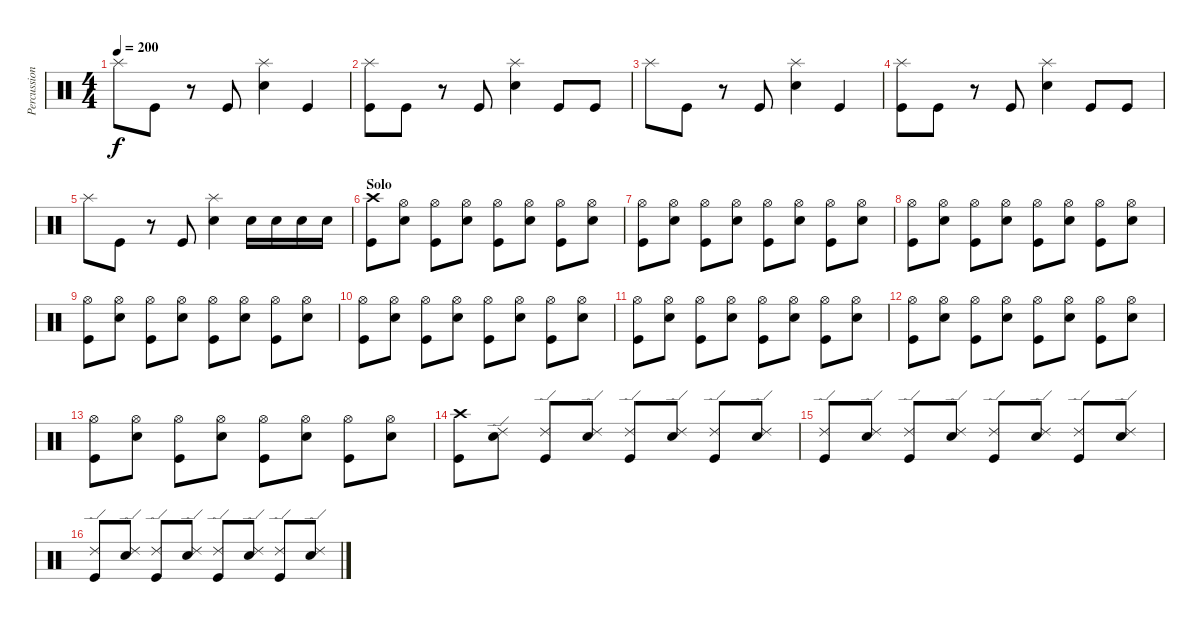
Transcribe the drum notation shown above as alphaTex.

\track ("Percussion" "Percussion") {instrument percussion}
\staff {score}
\articulation defaults
\ts (4 4)
\tempo 200
\clef neutral
\ks c "Splash (hit)".8{dy f} "Kick (hit)".8
r.8 "Kick (hit)".8 ("Splash (hit)" "Electric Snare (hit)").4 "Kick (hit)".4 |
("Splash (hit)" "Kick (hit)").8 "Kick (hit)".8 r.8 "Kick (hit)".8 ("Splash (hit)" "Electric Snare (hit)").4 "Kick (hit)".8 "Kick (hit)".8 |
"Splash (hit)".8 "Kick (hit)".8 r.8 "Kick (hit)".8 ("Splash (hit)" "Electric Snare (hit)").4 "Kick (hit)".4 |
("Splash (hit)" "Kick (hit)").8 "Kick (hit)".8 r.8 "Kick (hit)".8 ("Splash (hit)" "Electric Snare (hit)").4 "Kick (hit)".8 "Kick (hit)".8 |
"Splash (hit)".8 "Kick (hit)".8 r.8 "Kick (hit)".8 ("Splash (hit)" "Electric Snare (hit)").4 "Electric Snare (hit)".16 "Electric Snare (hit)".16 "Electric Snare (hit)".16 "Electric Snare (hit)".16 |
\section ("" "Solo")
("Crash high (hit)" "Kick (hit)").8 ("Hi-Hat (open)" "Electric Snare (hit)").8 ("Hi-Hat (open)" "Kick (hit)").8 ("Hi-Hat (open)" "Electric Snare (hit)").8 ("Hi-Hat (open)" "Kick (hit)").8 ("Hi-Hat (open)" "Electric Snare (hit)").8 ("Hi-Hat (open)" "Kick (hit)").8 ("Hi-Hat (open)" "Electric Snare (hit)").8 |
("Hi-Hat (open)" "Kick (hit)").8 ("Hi-Hat (open)" "Electric Snare (hit)").8 ("Hi-Hat (open)" "Kick (hit)").8 ("Hi-Hat (open)" "Electric Snare (hit)").8 ("Hi-Hat (open)" "Kick (hit)").8 ("Hi-Hat (open)" "Electric Snare (hit)").8 ("Hi-Hat (open)" "Kick (hit)").8 ("Hi-Hat (open)" "Electric Snare (hit)").8 |
("Hi-Hat (open)" "Kick (hit)").8 ("Hi-Hat (open)" "Electric Snare (hit)").8 ("Hi-Hat (open)" "Kick (hit)").8 ("Hi-Hat (open)" "Electric Snare (hit)").8 ("Hi-Hat (open)" "Kick (hit)").8 ("Hi-Hat (open)" "Electric Snare (hit)").8 ("Hi-Hat (open)" "Kick (hit)").8 ("Hi-Hat (open)" "Electric Snare (hit)").8 |
("Hi-Hat (open)" "Kick (hit)").8 ("Hi-Hat (open)" "Electric Snare (hit)").8 ("Hi-Hat (open)" "Kick (hit)").8 ("Hi-Hat (open)" "Electric Snare (hit)").8 ("Hi-Hat (open)" "Kick (hit)").8 ("Hi-Hat (open)" "Electric Snare (hit)").8 ("Hi-Hat (open)" "Kick (hit)").8 ("Hi-Hat (open)" "Electric Snare (hit)").8 |
("Hi-Hat (open)" "Kick (hit)").8 ("Hi-Hat (open)" "Electric Snare (hit)").8 ("Hi-Hat (open)" "Kick (hit)").8 ("Hi-Hat (open)" "Electric Snare (hit)").8 ("Hi-Hat (open)" "Kick (hit)").8 ("Hi-Hat (open)" "Electric Snare (hit)").8 ("Hi-Hat (open)" "Kick (hit)").8 ("Hi-Hat (open)" "Electric Snare (hit)").8 |
("Hi-Hat (open)" "Kick (hit)").8 ("Hi-Hat (open)" "Electric Snare (hit)").8 ("Hi-Hat (open)" "Kick (hit)").8 ("Hi-Hat (open)" "Electric Snare (hit)").8 ("Hi-Hat (open)" "Kick (hit)").8 ("Hi-Hat (open)" "Electric Snare (hit)").8 ("Hi-Hat (open)" "Kick (hit)").8 ("Hi-Hat (open)" "Electric Snare (hit)").8 |
("Hi-Hat (open)" "Kick (hit)").8 ("Hi-Hat (open)" "Electric Snare (hit)").8 ("Hi-Hat (open)" "Kick (hit)").8 ("Hi-Hat (open)" "Electric Snare (hit)").8 ("Hi-Hat (open)" "Kick (hit)").8 ("Hi-Hat (open)" "Electric Snare (hit)").8 ("Hi-Hat (open)" "Kick (hit)").8 ("Hi-Hat (open)" "Electric Snare (hit)").8 |
("Hi-Hat (open)" "Kick (hit)").8 ("Hi-Hat (open)" "Electric Snare (hit)").8 ("Hi-Hat (open)" "Kick (hit)").8 ("Hi-Hat (open)" "Electric Snare (hit)").8 ("Hi-Hat (open)" "Kick (hit)").8 ("Hi-Hat (open)" "Electric Snare (hit)").8 ("Hi-Hat (open)" "Kick (hit)").8 ("Hi-Hat (open)" "Electric Snare (hit)").8 |
("Crash high (hit)" "Kick (hit)").8 ("Ride (edge) 2" "Electric Snare (hit)").8 ("Ride (edge) 2" "Kick (hit)").8 ("Ride (edge) 2" "Electric Snare (hit)").8 ("Ride (edge) 2" "Kick (hit)").8 ("Ride (edge) 2" "Electric Snare (hit)").8 ("Ride (edge) 2" "Kick (hit)").8 ("Ride (edge) 2" "Electric Snare (hit)").8 |
("Ride (edge) 2" "Kick (hit)").8 ("Ride (edge) 2" "Electric Snare (hit)").8 ("Ride (edge) 2" "Kick (hit)").8 ("Ride (edge) 2" "Electric Snare (hit)").8 ("Ride (edge) 2" "Kick (hit)").8 ("Ride (edge) 2" "Electric Snare (hit)").8 ("Ride (edge) 2" "Kick (hit)").8 ("Ride (edge) 2" "Electric Snare (hit)").8 |
("Ride (edge) 2" "Kick (hit)").8 ("Ride (edge) 2" "Electric Snare (hit)").8 ("Ride (edge) 2" "Kick (hit)").8 ("Ride (edge) 2" "Electric Snare (hit)").8 ("Ride (edge) 2" "Kick (hit)").8 ("Ride (edge) 2" "Electric Snare (hit)").8 ("Ride (edge) 2" "Kick (hit)").8 ("Ride (edge) 2" "Electric Snare (hit)").8
